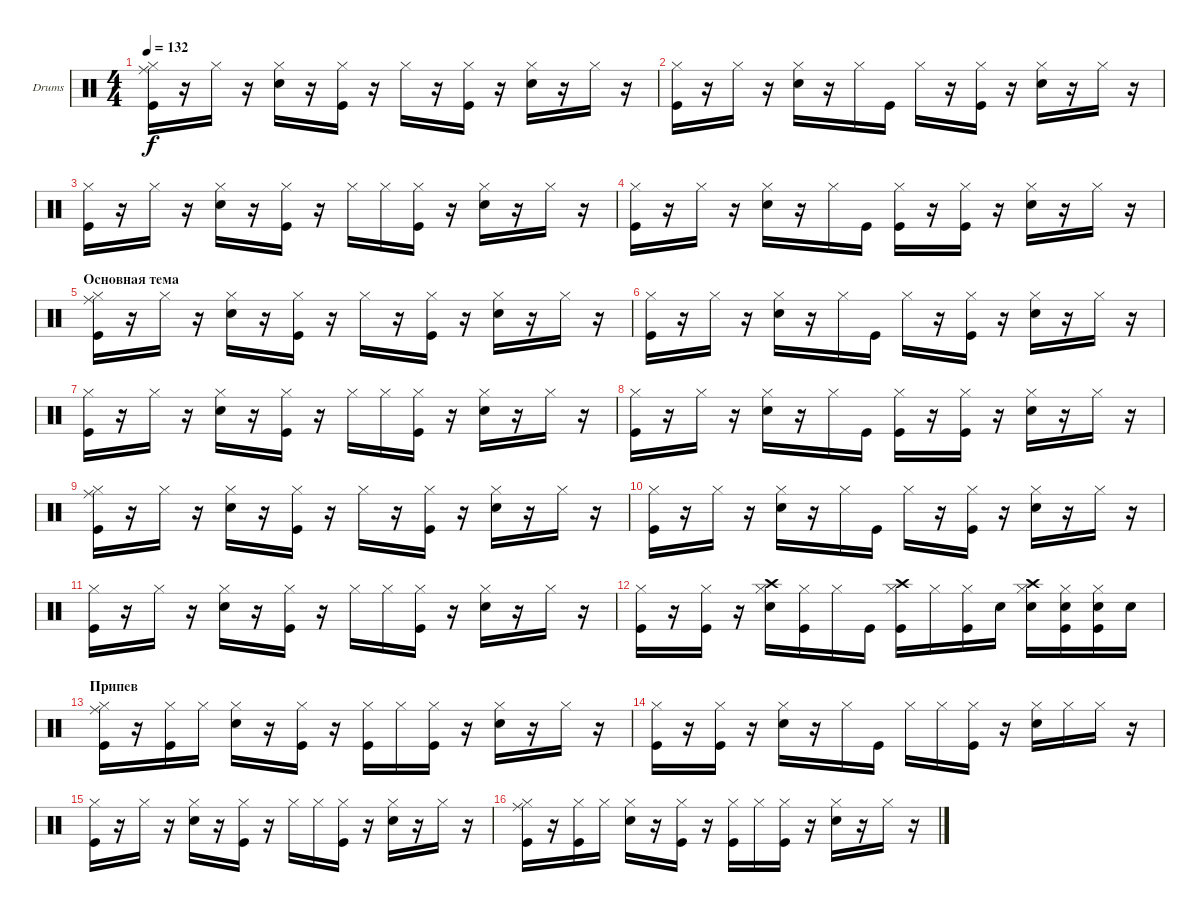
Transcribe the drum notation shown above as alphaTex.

\defaultSystemsLayout 4
\bracketExtendMode groupsimilarinstruments
\firstSystemTrackNameOrientation horizontal
\otherSystemsTrackNameOrientation horizontal
\track ("Drumkit" "Drums") {instrument percussion}
\staff {score}
\articulation defaults
\ts (4 4)
\tempo 132
\clef neutral
\ks c
("Kick (hit)" "Ride (middle)" "Hi-Hat (closed)").16{dy f} r.16 "Hi-Hat (closed)".16 r.16 ("Snare (hit) 2" "Hi-Hat (closed)").16 r.16 ("Kick (hit)" "Hi-Hat (closed)").16 r.16 "Hi-Hat (closed)".16 r.16 ("Kick (hit)" "Hi-Hat (closed)").16 r.16 ("Snare (hit) 2" "Hi-Hat (closed)").16 r.16 "Hi-Hat (closed)".16 r.16 |
("Kick (hit)" "Hi-Hat (closed)").16 r.16 "Hi-Hat (closed)".16 r.16 ("Snare (hit) 2" "Hi-Hat (closed)").16 r.16 "Hi-Hat (closed)".16 "Kick (hit)".16 "Hi-Hat (closed)".16 r.16 ("Kick (hit)" "Hi-Hat (closed)").16 r.16 ("Snare (hit) 2" "Hi-Hat (closed)").16 r.16 "Hi-Hat (closed)".16 r.16 |
("Kick (hit)" "Hi-Hat (closed)").16 r.16 "Hi-Hat (closed)".16 r.16 ("Snare (hit) 2" "Hi-Hat (closed)").16 r.16 ("Kick (hit)" "Hi-Hat (closed)").16 r.16 "Hi-Hat (closed)".16 "Hi-Hat (closed)".16 ("Kick (hit)" "Hi-Hat (closed)").16 r.16 ("Snare (hit) 2" "Hi-Hat (closed)").16 r.16 "Hi-Hat (closed)".16 r.16 |
("Kick (hit)" "Hi-Hat (closed)").16 r.16 "Hi-Hat (closed)".16 r.16 ("Snare (hit) 2" "Hi-Hat (closed)").16 r.16 "Hi-Hat (closed)".16 "Kick (hit)".16 ("Kick (hit)" "Hi-Hat (closed)").16 r.16 ("Kick (hit)" "Hi-Hat (closed)").16 r.16 ("Snare (hit) 2" "Hi-Hat (closed)").16 r.16 "Hi-Hat (closed)".16 r.16 |
\section ("" "Основная тема")
("Kick (hit)" "Ride (middle)" "Hi-Hat (closed)").16 r.16 "Hi-Hat (closed)".16 r.16 ("Snare (hit) 2" "Hi-Hat (closed)").16 r.16 ("Kick (hit)" "Hi-Hat (closed)").16 r.16 "Hi-Hat (closed)".16 r.16 ("Kick (hit)" "Hi-Hat (closed)").16 r.16 ("Snare (hit) 2" "Hi-Hat (closed)").16 r.16 "Hi-Hat (closed)".16 r.16 |
("Kick (hit)" "Hi-Hat (closed)").16 r.16 "Hi-Hat (closed)".16 r.16 ("Snare (hit) 2" "Hi-Hat (closed)").16 r.16 "Hi-Hat (closed)".16 "Kick (hit)".16 "Hi-Hat (closed)".16 r.16 ("Kick (hit)" "Hi-Hat (closed)").16 r.16 ("Snare (hit) 2" "Hi-Hat (closed)").16 r.16 "Hi-Hat (closed)".16 r.16 |
("Kick (hit)" "Hi-Hat (closed)").16 r.16 "Hi-Hat (closed)".16 r.16 ("Snare (hit) 2" "Hi-Hat (closed)").16 r.16 ("Kick (hit)" "Hi-Hat (closed)").16 r.16 "Hi-Hat (closed)".16 "Hi-Hat (closed)".16 ("Kick (hit)" "Hi-Hat (closed)").16 r.16 ("Snare (hit) 2" "Hi-Hat (closed)").16 r.16 "Hi-Hat (closed)".16 r.16 |
("Kick (hit)" "Hi-Hat (closed)").16 r.16 "Hi-Hat (closed)".16 r.16 ("Snare (hit) 2" "Hi-Hat (closed)").16 r.16 "Hi-Hat (closed)".16 "Kick (hit)".16 ("Kick (hit)" "Hi-Hat (closed)").16 r.16 ("Kick (hit)" "Hi-Hat (closed)").16 r.16 ("Snare (hit) 2" "Hi-Hat (closed)").16 r.16 "Hi-Hat (closed)".16 r.16 |
("Kick (hit)" "Ride (middle)" "Hi-Hat (closed)").16 r.16 "Hi-Hat (closed)".16 r.16 ("Snare (hit) 2" "Hi-Hat (closed)").16 r.16 ("Kick (hit)" "Hi-Hat (closed)").16 r.16 "Hi-Hat (closed)".16 r.16 ("Kick (hit)" "Hi-Hat (closed)").16 r.16 ("Snare (hit) 2" "Hi-Hat (closed)").16 r.16 "Hi-Hat (closed)".16 r.16 |
("Kick (hit)" "Hi-Hat (closed)").16 r.16 "Hi-Hat (closed)".16 r.16 ("Snare (hit) 2" "Hi-Hat (closed)").16 r.16 "Hi-Hat (closed)".16 "Kick (hit)".16 "Hi-Hat (closed)".16 r.16 ("Kick (hit)" "Hi-Hat (closed)").16 r.16 ("Snare (hit) 2" "Hi-Hat (closed)").16 r.16 "Hi-Hat (closed)".16 r.16 |
("Kick (hit)" "Hi-Hat (closed)").16 r.16 "Hi-Hat (closed)".16 r.16 ("Snare (hit) 2" "Hi-Hat (closed)").16 r.16 ("Kick (hit)" "Hi-Hat (closed)").16 r.16 "Hi-Hat (closed)".16 "Hi-Hat (closed)".16 ("Kick (hit)" "Hi-Hat (closed)").16 r.16 ("Snare (hit) 2" "Hi-Hat (closed)").16 r.16 "Hi-Hat (closed)".16 r.16 |
("Kick (hit)" "Hi-Hat (closed)").16 r.16 ("Kick (hit)" "Hi-Hat (closed)").16 r.16 ("Snare (hit) 2" "Crash high (hit)" "Hi-Hat (closed)").16 ("Kick (hit)" "Hi-Hat (closed)").16 "Hi-Hat (closed)".16 "Kick (hit)".16 ("Kick (hit)" "Crash high (hit)" "Hi-Hat (closed)").16 "Hi-Hat (closed)".16 ("Kick (hit)" "Hi-Hat (closed)").16 "Snare (hit) 2".16 ("Snare (hit) 2" "Crash high (hit)" "Hi-Hat (closed)").16 ("Kick (hit)" "Snare (hit) 2" "Hi-Hat (closed)").16 ("Kick (hit)" "Snare (hit) 2" "Hi-Hat (closed)").16 "Snare (hit) 2".16 |
\section ("" "Припев")
("Kick (hit)" "Ride (middle)" "Hi-Hat (closed)").16 r.16 ("Kick (hit)" "Hi-Hat (closed)").16 "Hi-Hat (closed)".16 ("Snare (hit) 2" "Hi-Hat (closed)").16 r.16 ("Kick (hit)" "Hi-Hat (closed)").16 r.16 ("Kick (hit)" "Hi-Hat (closed)").16 "Hi-Hat (closed)".16 ("Kick (hit)" "Hi-Hat (closed)").16 r.16 ("Snare (hit) 2" "Hi-Hat (closed)").16 r.16 "Hi-Hat (closed)".16 r.16 |
("Kick (hit)" "Hi-Hat (closed)").16 r.16 ("Kick (hit)" "Hi-Hat (closed)").16 r.16 ("Snare (hit) 2" "Hi-Hat (closed)").16 r.16 "Hi-Hat (closed)".16 "Kick (hit)".16 "Hi-Hat (closed)".16 "Hi-Hat (closed)".16 ("Kick (hit)" "Hi-Hat (closed)").16 r.16 ("Snare (hit) 2" "Hi-Hat (closed)").16 "Hi-Hat (closed)".16 "Hi-Hat (closed)".16 r.16 |
("Kick (hit)" "Hi-Hat (closed)").16 r.16 "Hi-Hat (closed)".16 r.16 ("Snare (hit) 2" "Hi-Hat (closed)").16 r.16 ("Kick (hit)" "Hi-Hat (closed)").16 r.16 "Hi-Hat (closed)".16 "Hi-Hat (closed)".16 ("Kick (hit)" "Hi-Hat (closed)").16 r.16 ("Snare (hit) 2" "Hi-Hat (closed)").16 r.16 "Hi-Hat (closed)".16 r.16 |
("Kick (hit)" "Ride (middle)" "Hi-Hat (closed)").16 r.16 ("Kick (hit)" "Hi-Hat (closed)").16 "Hi-Hat (closed)".16 ("Snare (hit) 2" "Hi-Hat (closed)").16 r.16 ("Kick (hit)" "Hi-Hat (closed)").16 r.16 ("Kick (hit)" "Hi-Hat (closed)").16 "Hi-Hat (closed)".16 ("Kick (hit)" "Hi-Hat (closed)").16 r.16 ("Snare (hit) 2" "Hi-Hat (closed)").16 r.16 "Hi-Hat (closed)".16 r.16
